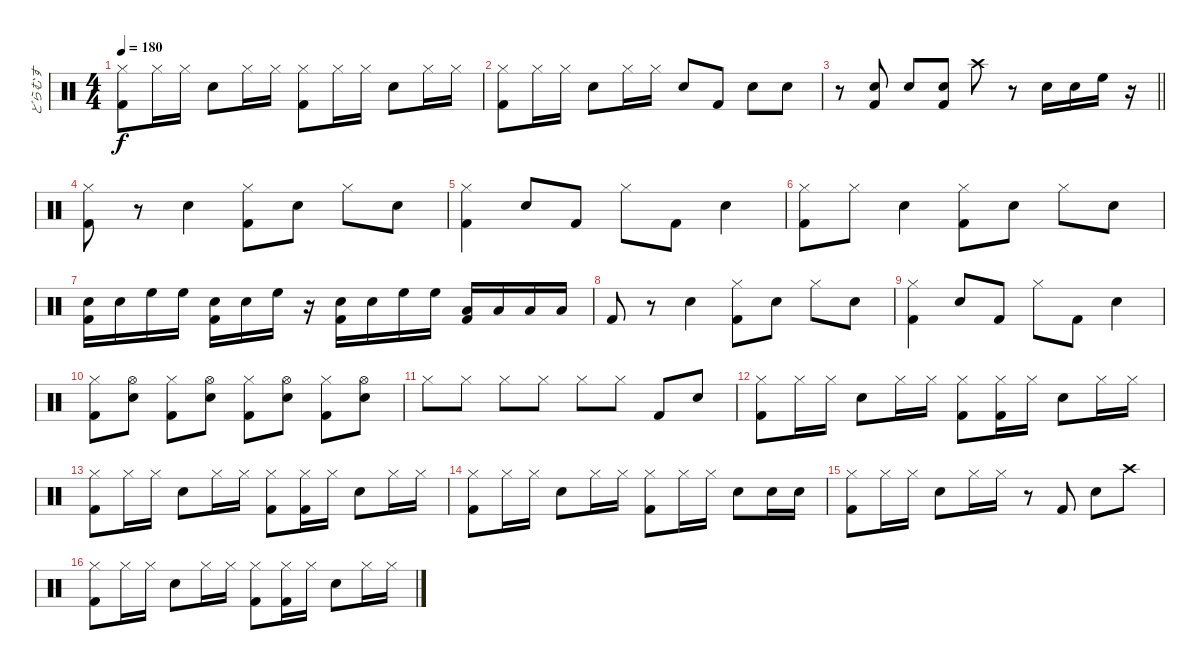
\track ("どらむす" "どらむす") {instrument percussion}
\staff {score}
\articulation defaults
\ts (4 4)
\tempo 180
\clef neutral
\ks c
("Hi-Hat (closed)" "Kick (hit) 2").8{dy f} "Hi-Hat (closed)".16 "Hi-Hat (closed)".16 "Electric Snare (hit)".8 "Hi-Hat (closed)".16 "Hi-Hat (closed)".16 ("Hi-Hat (closed)" "Kick (hit) 2").8 "Hi-Hat (closed)".16 "Hi-Hat (closed)".16 "Electric Snare (hit)".8 "Hi-Hat (closed)".16 "Hi-Hat (closed)".16 |
("Hi-Hat (closed)" "Kick (hit) 2").8 "Hi-Hat (closed)".16 "Hi-Hat (closed)".16 "Electric Snare (hit)".8 "Hi-Hat (closed)".16 "Hi-Hat (closed)".16 "Electric Snare (hit)".8 "Kick (hit) 2".8 "Electric Snare (hit)".8 "Electric Snare (hit)".8 |
\barLineRight lightlight
r.8 ("Electric Snare (hit)" "Kick (hit) 2").8 "Electric Snare (hit)".8 ("Electric Snare (hit)" "Kick (hit) 2").8 "Crash high (hit)".8 r.8 "Electric Snare (hit)".16 "Electric Snare (hit)".16 "High Floor Tom (hit)".16 r.16 |
("Hi-Hat (closed)" "Kick (hit) 2").8 r.8 "Electric Snare (hit)".4 ("Hi-Hat (closed)" "Kick (hit) 2").8 "Electric Snare (hit)".8 "Hi-Hat (closed)".8 "Electric Snare (hit)".8 |
("Hi-Hat (closed)" "Kick (hit) 2").4 "Electric Snare (hit)".8 "Kick (hit) 2".8 "Hi-Hat (closed)".8 "Kick (hit) 2".8 "Electric Snare (hit)".4 |
("Hi-Hat (closed)" "Kick (hit) 2").8 "Hi-Hat (closed)".8 "Electric Snare (hit)".4 ("Hi-Hat (closed)" "Kick (hit) 2").8 "Electric Snare (hit)".8 "Hi-Hat (closed)".8 "Electric Snare (hit)".8 |
("Electric Snare (hit)" "Kick (hit) 2").16 "Electric Snare (hit)".16 "High Floor Tom (hit)".16 "High Floor Tom (hit)".16 ("Electric Snare (hit)" "Kick (hit) 2").16 "Electric Snare (hit)".16 "High Floor Tom (hit)".16 r.16 ("Electric Snare (hit)" "Kick (hit) 2").16 "Electric Snare (hit)".16 "High Floor Tom (hit)".16 "High Floor Tom (hit)".16 ("Low Tom (hit)" "Kick (hit) 2").16 "Low Tom (hit)".16 "Low Floor Tom (hit)".16 "Low Floor Tom (hit)".16 |
"Kick (hit) 2".8 r.8 "Electric Snare (hit)".4 ("Hi-Hat (closed)" "Kick (hit) 2").8 "Electric Snare (hit)".8 "Hi-Hat (closed)".8 "Electric Snare (hit)".8 |
("Hi-Hat (closed)" "Kick (hit) 2").4 "Electric Snare (hit)".8 "Kick (hit) 2".8 "Hi-Hat (closed)".8 "Kick (hit) 2".8 "Electric Snare (hit)".4 |
("Hi-Hat (closed)" "Kick (hit) 2").8 ("Hi-Hat (open)" "Electric Snare (hit)").8 ("Hi-Hat (closed)" "Kick (hit) 2").8 ("Hi-Hat (open)" "Electric Snare (hit)").8 ("Hi-Hat (closed)" "Kick (hit) 2").8 ("Hi-Hat (open)" "Electric Snare (hit)").8 ("Hi-Hat (closed)" "Kick (hit) 2").8 ("Hi-Hat (open)" "Electric Snare (hit)").8 |
"Hi-Hat (closed)".8 "Hi-Hat (closed)".8 "Hi-Hat (closed)".8 "Hi-Hat (closed)".8 "Hi-Hat (closed)".8 "Hi-Hat (closed)".8 "Kick (hit) 2".8 "Electric Snare (hit)".8 |
("Hi-Hat (closed)" "Kick (hit) 2").8 "Hi-Hat (closed)".16 "Hi-Hat (closed)".16 "Electric Snare (hit)".8 "Hi-Hat (closed)".16 "Hi-Hat (closed)".16 ("Hi-Hat (closed)" "Kick (hit) 2").8 ("Hi-Hat (closed)" "Kick (hit) 2").16 "Hi-Hat (closed)".16 "Electric Snare (hit)".8 "Hi-Hat (closed)".16 "Hi-Hat (closed)".16 |
("Hi-Hat (closed)" "Kick (hit) 2").8 "Hi-Hat (closed)".16 "Hi-Hat (closed)".16 "Electric Snare (hit)".8 "Hi-Hat (closed)".16 "Hi-Hat (closed)".16 ("Hi-Hat (closed)" "Kick (hit) 2").8 ("Hi-Hat (closed)" "Kick (hit) 2").16 "Hi-Hat (closed)".16 "Electric Snare (hit)".8 "Hi-Hat (closed)".16 "Hi-Hat (closed)".16 |
("Hi-Hat (closed)" "Kick (hit) 2").8 "Hi-Hat (closed)".16 "Hi-Hat (closed)".16 "Electric Snare (hit)".8 "Hi-Hat (closed)".16 "Hi-Hat (closed)".16 ("Hi-Hat (closed)" "Kick (hit) 2").8 "Hi-Hat (closed)".16 "Hi-Hat (closed)".16 "Electric Snare (hit)".8 "Electric Snare (hit)".16 "Electric Snare (hit)".16 |
("Hi-Hat (closed)" "Kick (hit) 2").8 "Hi-Hat (closed)".16 "Hi-Hat (closed)".16 "Electric Snare (hit)".8 "Hi-Hat (closed)".16 "Hi-Hat (closed)".16 r.8 "Kick (hit) 2".8 "Electric Snare (hit)".8 "Crash high (hit)".8 |
("Hi-Hat (closed)" "Kick (hit) 2").8 "Hi-Hat (closed)".16 "Hi-Hat (closed)".16 "Electric Snare (hit)".8 "Hi-Hat (closed)".16 "Hi-Hat (closed)".16 ("Hi-Hat (closed)" "Kick (hit) 2").8 ("Hi-Hat (closed)" "Kick (hit) 2").16 "Hi-Hat (closed)".16 "Electric Snare (hit)".8 "Hi-Hat (closed)".16 "Hi-Hat (closed)".16
